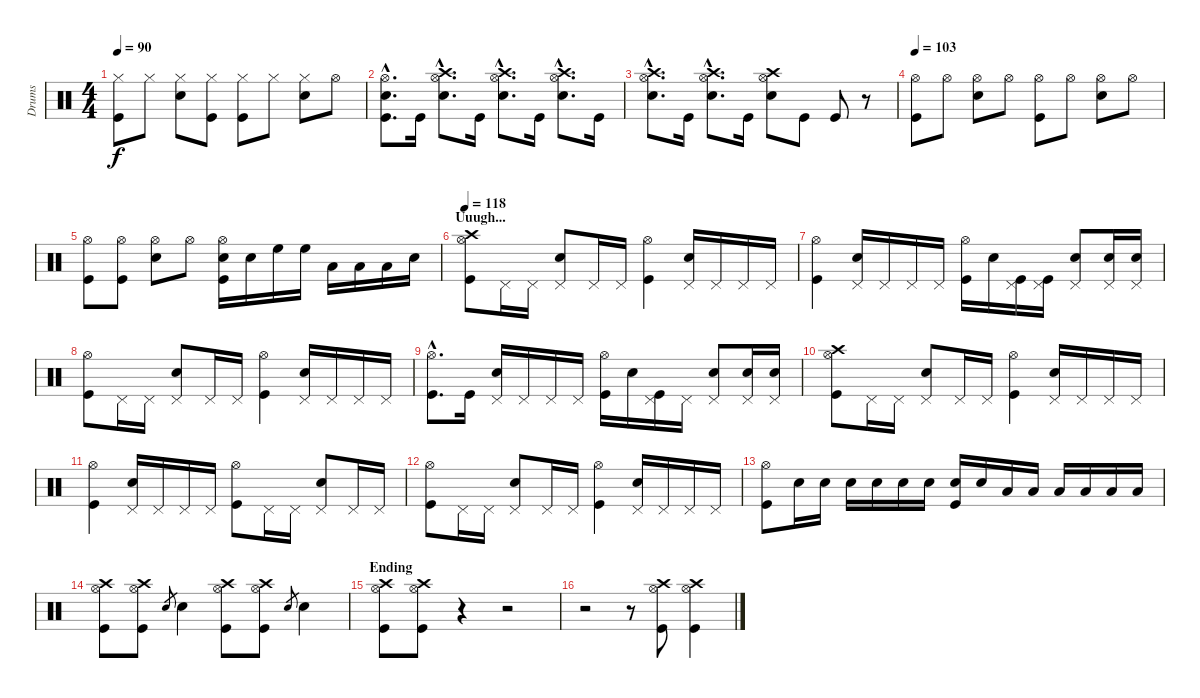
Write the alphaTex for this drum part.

\track ("Drums" "Drums") {instrument percussion}
\staff {score}
\articulation defaults
\ts (4 4)
\tempo 90
\clef neutral
\ks c
("Hi-Hat (closed)" "Kick (hit)").8{dy f} "Hi-Hat (closed)".8 ("Hi-Hat (closed)" "Snare (hit) 2").8 ("Hi-Hat (closed)" "Kick (hit)").8 ("Hi-Hat (closed)" "Kick (hit)").8 "Hi-Hat (closed)".8 ("Hi-Hat (closed)" "Snare (hit) 2").8 "Hi-Hat (open)".8 |
("Hi-Hat (open)"{hac} "Snare (hit) 2"{hac} "Kick (hit)"{hac}).8{d} "Kick (hit)".16 ("Hi-Hat (open)"{hac} "Snare (hit) 2"{hac} "Crash high (hit)"{hac}).8{d} "Kick (hit)".16 ("Hi-Hat (open)"{hac} "Snare (hit) 2"{hac} "Crash high (hit)"{hac}).8{d} "Kick (hit)".16 ("Hi-Hat (open)"{hac} "Snare (hit) 2"{hac} "Crash high (hit)"{hac}).8{d} "Kick (hit)".16 |
("Hi-Hat (open)"{hac} "Snare (hit) 2"{hac} "Crash high (hit)"{hac}).8{d} "Kick (hit)".16 ("Hi-Hat (open)"{hac} "Snare (hit) 2"{hac} "Crash high (hit)"{hac}).8{d} "Kick (hit)".16 ("Hi-Hat (open)" "Snare (hit) 2" "Crash high (hit)").8 "Kick (hit)".8 "Kick (hit)".8 r.8 |
\tempo 103
("Hi-Hat (open)" "Kick (hit)").8 "Hi-Hat (open)".8 ("Hi-Hat (open)" "Snare (hit) 2").8 "Hi-Hat (open)".8 ("Hi-Hat (open)" "Kick (hit)").8 "Hi-Hat (open)".8 ("Hi-Hat (open)" "Snare (hit) 2").8 "Hi-Hat (open)".8 |
("Hi-Hat (open)" "Kick (hit)").8 ("Hi-Hat (open)" "Kick (hit)").8 ("Hi-Hat (open)" "Snare (hit) 2").8 "Hi-Hat (open)".8 ("Hi-Hat (open)" "Snare (hit) 2" "Kick (hit)").16 "Snare (hit) 2".16 "High Floor Tom (hit)".16 "High Floor Tom (hit)".16 "Low Tom (hit)".16 "Low Tom (hit)".16 "Low Tom (hit)".16 "Snare (hit) 2".16 |
\section ("" "Uuugh...")
\tempo 118
("Hi-Hat (open)" "Crash high (hit)" "Kick (hit)").8 "Pedal Hi-Hat (hit)".16 "Pedal Hi-Hat (hit)".16 ("Pedal Hi-Hat (hit)" "Snare (hit) 2").8 "Pedal Hi-Hat (hit)".16 "Pedal Hi-Hat (hit)".16 ("Hi-Hat (open)" "Kick (hit)").4 ("Pedal Hi-Hat (hit)" "Snare (hit) 2").16 "Pedal Hi-Hat (hit)".16 "Pedal Hi-Hat (hit)".16 "Pedal Hi-Hat (hit)".16 |
("Hi-Hat (open)" "Kick (hit)").4 ("Pedal Hi-Hat (hit)" "Snare (hit) 2").16 "Pedal Hi-Hat (hit)".16 "Pedal Hi-Hat (hit)".16 "Pedal Hi-Hat (hit)".16 ("Hi-Hat (open)" "Kick (hit)").16 "Snare (hit) 2".16 ("Pedal Hi-Hat (hit)" "Kick (hit)").16 ("Pedal Hi-Hat (hit)" "Kick (hit)").16 ("Pedal Hi-Hat (hit)" "Snare (hit) 2").8 ("Pedal Hi-Hat (hit)" "Snare (hit) 2").16 ("Pedal Hi-Hat (hit)" "Snare (hit) 2").16 |
("Hi-Hat (open)" "Kick (hit)").8 "Pedal Hi-Hat (hit)".16 "Pedal Hi-Hat (hit)".16 ("Pedal Hi-Hat (hit)" "Snare (hit) 2").8 "Pedal Hi-Hat (hit)".16 "Pedal Hi-Hat (hit)".16 ("Hi-Hat (open)" "Kick (hit)").4 ("Pedal Hi-Hat (hit)" "Snare (hit) 2").16 "Pedal Hi-Hat (hit)".16 "Pedal Hi-Hat (hit)".16 "Pedal Hi-Hat (hit)".16 |
("Hi-Hat (open)"{hac} "Kick (hit)"{hac}).8{d} "Kick (hit)".16 ("Pedal Hi-Hat (hit)" "Snare (hit) 2").16 "Pedal Hi-Hat (hit)".16 "Pedal Hi-Hat (hit)".16 "Pedal Hi-Hat (hit)".16 ("Hi-Hat (open)" "Kick (hit)").16 "Snare (hit) 2".16 ("Pedal Hi-Hat (hit)" "Kick (hit)").16 "Pedal Hi-Hat (hit)".16 ("Pedal Hi-Hat (hit)" "Snare (hit) 2").8 ("Pedal Hi-Hat (hit)" "Snare (hit) 2").16 ("Pedal Hi-Hat (hit)" "Snare (hit) 2").16 |
("Hi-Hat (open)" "Crash high (hit)" "Kick (hit)").8 "Pedal Hi-Hat (hit)".16 "Pedal Hi-Hat (hit)".16 ("Pedal Hi-Hat (hit)" "Snare (hit) 2").8 "Pedal Hi-Hat (hit)".16 "Pedal Hi-Hat (hit)".16 ("Hi-Hat (open)" "Kick (hit)").4 ("Pedal Hi-Hat (hit)" "Snare (hit) 2").16 "Pedal Hi-Hat (hit)".16 "Pedal Hi-Hat (hit)".16 "Pedal Hi-Hat (hit)".16 |
("Hi-Hat (open)" "Kick (hit)").4 ("Pedal Hi-Hat (hit)" "Snare (hit) 2").16 "Pedal Hi-Hat (hit)".16 "Pedal Hi-Hat (hit)".16 "Pedal Hi-Hat (hit)".16 ("Hi-Hat (open)" "Kick (hit)").8 "Pedal Hi-Hat (hit)".16 "Pedal Hi-Hat (hit)".16 ("Pedal Hi-Hat (hit)" "Snare (hit) 2").8 "Pedal Hi-Hat (hit)".16 "Pedal Hi-Hat (hit)".16 |
("Hi-Hat (open)" "Kick (hit)").8 "Pedal Hi-Hat (hit)".16 "Pedal Hi-Hat (hit)".16 ("Pedal Hi-Hat (hit)" "Snare (hit) 2").8 "Pedal Hi-Hat (hit)".16 "Pedal Hi-Hat (hit)".16 ("Hi-Hat (open)" "Kick (hit)").4 ("Pedal Hi-Hat (hit)" "Snare (hit) 2").16 "Pedal Hi-Hat (hit)".16 "Pedal Hi-Hat (hit)".16 "Pedal Hi-Hat (hit)".16 |
("Hi-Hat (open)" "Kick (hit)").8 "Snare (hit) 2".16 "Snare (hit) 2".16 "Snare (hit) 2".16 "Snare (hit) 2".16 "Snare (hit) 2".16 "Snare (hit) 2".16 ("Snare (hit) 2" "Kick (hit)").16 "Snare (hit) 2".16 "Low Tom (hit)".16 "Low Tom (hit)".16 "Low Tom (hit)".16 "Low Tom (hit)".16 "Low Tom (hit)".16 "Low Tom (hit)".16 |
("Hi-Hat (open)" "Crash high (hit)" "Kick (hit)").8 ("Hi-Hat (open)" "Crash high (hit)" "Kick (hit)").8 "Snare (hit) 2".8{gr} "Snare (hit) 2".4 ("Hi-Hat (open)" "Crash high (hit)" "Kick (hit)").8 ("Hi-Hat (open)" "Crash high (hit)" "Kick (hit)").8 "Snare (hit) 2".8{gr} "Snare (hit) 2".4 |
\section ("" "Ending")
("Hi-Hat (open)" "Crash high (hit)" "Kick (hit)").8 ("Hi-Hat (open)" "Crash high (hit)" "Kick (hit)").8 r.4 r.2 |
r.2 r.8 ("Hi-Hat (open)" "Crash high (hit)" "Kick (hit)").8 ("Hi-Hat (open)" "Crash high (hit)" "Kick (hit)").4
